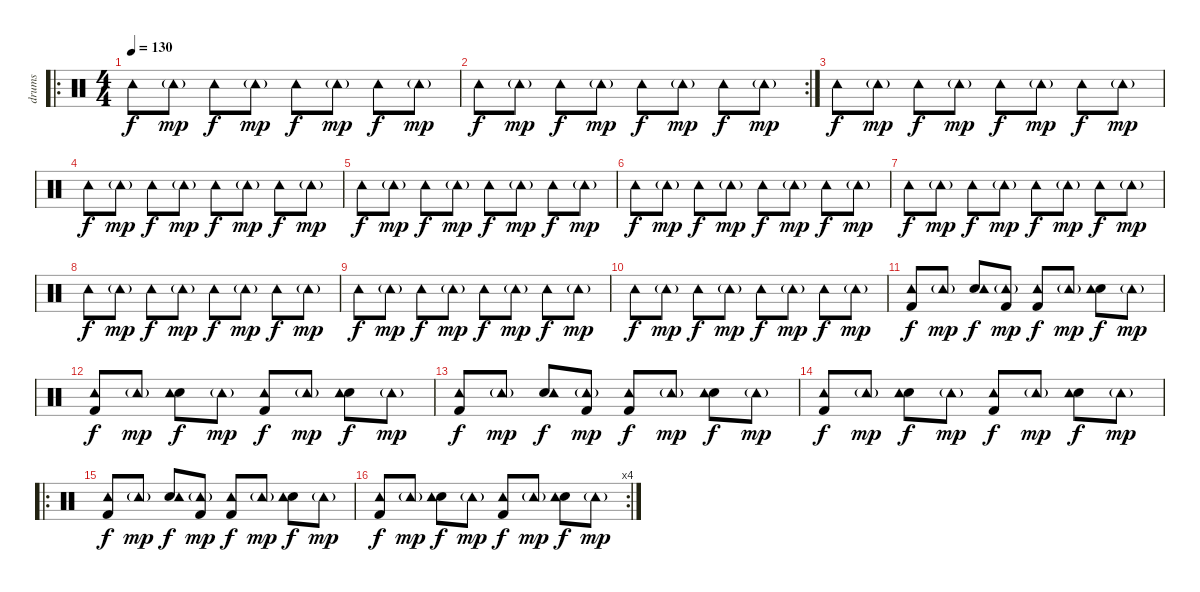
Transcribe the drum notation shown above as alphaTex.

\track ("drums" "drums") {instrument percussion}
\staff {score}
\articulation defaults
\ro
\ts (4 4)
\tempo 130
\clef neutral
\ks c "Tambourine (hit)".8{dy f} "Tambourine (hit)"{g}.8{dy mp} "Tambourine (hit)".8{dy f} "Tambourine (hit)"{g}.8{dy mp} "Tambourine (hit)".8{dy f} "Tambourine (hit)"{g}.8{dy mp} "Tambourine (hit)".8{dy f} "Tambourine (hit)"{g}.8{dy mp}
|
\rc 2 "Tambourine (hit)".8{dy f} "Tambourine (hit)"{g}.8{dy mp} "Tambourine (hit)".8{dy f} "Tambourine (hit)"{g}.8{dy mp} "Tambourine (hit)".8{dy f} "Tambourine (hit)"{g}.8{dy mp} "Tambourine (hit)".8{dy f} "Tambourine (hit)"{g}.8{dy mp}
|
"Tambourine (hit)".8{dy f} "Tambourine (hit)"{g}.8{dy mp} "Tambourine (hit)".8{dy f} "Tambourine (hit)"{g}.8{dy mp} "Tambourine (hit)".8{dy f} "Tambourine (hit)"{g}.8{dy mp} "Tambourine (hit)".8{dy f} "Tambourine (hit)"{g}.8{dy mp} |
"Tambourine (hit)".8{dy f} "Tambourine (hit)"{g}.8{dy mp} "Tambourine (hit)".8{dy f} "Tambourine (hit)"{g}.8{dy mp} "Tambourine (hit)".8{dy f} "Tambourine (hit)"{g}.8{dy mp} "Tambourine (hit)".8{dy f} "Tambourine (hit)"{g}.8{dy mp} |
"Tambourine (hit)".8{dy f} "Tambourine (hit)"{g}.8{dy mp} "Tambourine (hit)".8{dy f} "Tambourine (hit)"{g}.8{dy mp} "Tambourine (hit)".8{dy f} "Tambourine (hit)"{g}.8{dy mp} "Tambourine (hit)".8{dy f} "Tambourine (hit)"{g}.8{dy mp} |
"Tambourine (hit)".8{dy f} "Tambourine (hit)"{g}.8{dy mp} "Tambourine (hit)".8{dy f} "Tambourine (hit)"{g}.8{dy mp} "Tambourine (hit)".8{dy f} "Tambourine (hit)"{g}.8{dy mp} "Tambourine (hit)".8{dy f} "Tambourine (hit)"{g}.8{dy mp} |
"Tambourine (hit)".8{dy f} "Tambourine (hit)"{g}.8{dy mp} "Tambourine (hit)".8{dy f} "Tambourine (hit)"{g}.8{dy mp} "Tambourine (hit)".8{dy f} "Tambourine (hit)"{g}.8{dy mp} "Tambourine (hit)".8{dy f} "Tambourine (hit)"{g}.8{dy mp} |
"Tambourine (hit)".8{dy f} "Tambourine (hit)"{g}.8{dy mp} "Tambourine (hit)".8{dy f} "Tambourine (hit)"{g}.8{dy mp} "Tambourine (hit)".8{dy f} "Tambourine (hit)"{g}.8{dy mp} "Tambourine (hit)".8{dy f} "Tambourine (hit)"{g}.8{dy mp} |
"Tambourine (hit)".8{dy f} "Tambourine (hit)"{g}.8{dy mp} "Tambourine (hit)".8{dy f} "Tambourine (hit)"{g}.8{dy mp} "Tambourine (hit)".8{dy f} "Tambourine (hit)"{g}.8{dy mp} "Tambourine (hit)".8{dy f} "Tambourine (hit)"{g}.8{dy mp} |
"Tambourine (hit)".8{dy f} "Tambourine (hit)"{g}.8{dy mp} "Tambourine (hit)".8{dy f} "Tambourine (hit)"{g}.8{dy mp} "Tambourine (hit)".8{dy f} "Tambourine (hit)"{g}.8{dy mp} "Tambourine (hit)".8{dy f} "Tambourine (hit)"{g}.8{dy mp} |
("Kick (hit) 2" "Tambourine (hit)").8{dy f} "Tambourine (hit)"{g}.8{dy mp} ("Electric Snare (hit)" "Tambourine (hit)").8{dy f} ("Kick (hit) 2" "Tambourine (hit)"{g}).8{dy mp} ("Kick (hit) 2" "Tambourine (hit)").8{dy f} "Tambourine (hit)"{g}.8{dy mp} ("Electric Snare (hit)" "Tambourine (hit)").8{dy f} "Tambourine (hit)"{g}.8{dy mp} |
("Kick (hit) 2" "Tambourine (hit)").8{dy f} "Tambourine (hit)"{g}.8{dy mp} ("Electric Snare (hit)" "Tambourine (hit)").8{dy f} "Tambourine (hit)"{g}.8{dy mp} ("Kick (hit) 2" "Tambourine (hit)").8{dy f} "Tambourine (hit)"{g}.8{dy mp} ("Electric Snare (hit)" "Tambourine (hit)").8{dy f} "Tambourine (hit)"{g}.8{dy mp} |
("Kick (hit) 2" "Tambourine (hit)").8{dy f} "Tambourine (hit)"{g}.8{dy mp} ("Electric Snare (hit)" "Tambourine (hit)").8{dy f} ("Kick (hit) 2" "Tambourine (hit)"{g}).8{dy mp} ("Kick (hit) 2" "Tambourine (hit)").8{dy f} "Tambourine (hit)"{g}.8{dy mp} ("Electric Snare (hit)" "Tambourine (hit)").8{dy f} "Tambourine (hit)"{g}.8{dy mp} |
("Kick (hit) 2" "Tambourine (hit)").8{dy f} "Tambourine (hit)"{g}.8{dy mp} ("Electric Snare (hit)" "Tambourine (hit)").8{dy f} "Tambourine (hit)"{g}.8{dy mp} ("Kick (hit) 2" "Tambourine (hit)").8{dy f} "Tambourine (hit)"{g}.8{dy mp} ("Electric Snare (hit)" "Tambourine (hit)").8{dy f} "Tambourine (hit)"{g}.8{dy mp} |
\ro
("Kick (hit) 2" "Tambourine (hit)").8{dy f} "Tambourine (hit)"{g}.8{dy mp} ("Electric Snare (hit)" "Tambourine (hit)").8{dy f} ("Kick (hit) 2" "Tambourine (hit)"{g}).8{dy mp} ("Kick (hit) 2" "Tambourine (hit)").8{dy f} "Tambourine (hit)"{g}.8{dy mp} ("Electric Snare (hit)" "Tambourine (hit)").8{dy f} "Tambourine (hit)"{g}.8{dy mp} |
\rc 4
("Kick (hit) 2" "Tambourine (hit)").8{dy f} "Tambourine (hit)"{g}.8{dy mp} ("Electric Snare (hit)" "Tambourine (hit)").8{dy f} "Tambourine (hit)"{g}.8{dy mp} ("Kick (hit) 2" "Tambourine (hit)").8{dy f} "Tambourine (hit)"{g}.8{dy mp} ("Electric Snare (hit)" "Tambourine (hit)").8{dy f} "Tambourine (hit)"{g}.8{dy mp}
